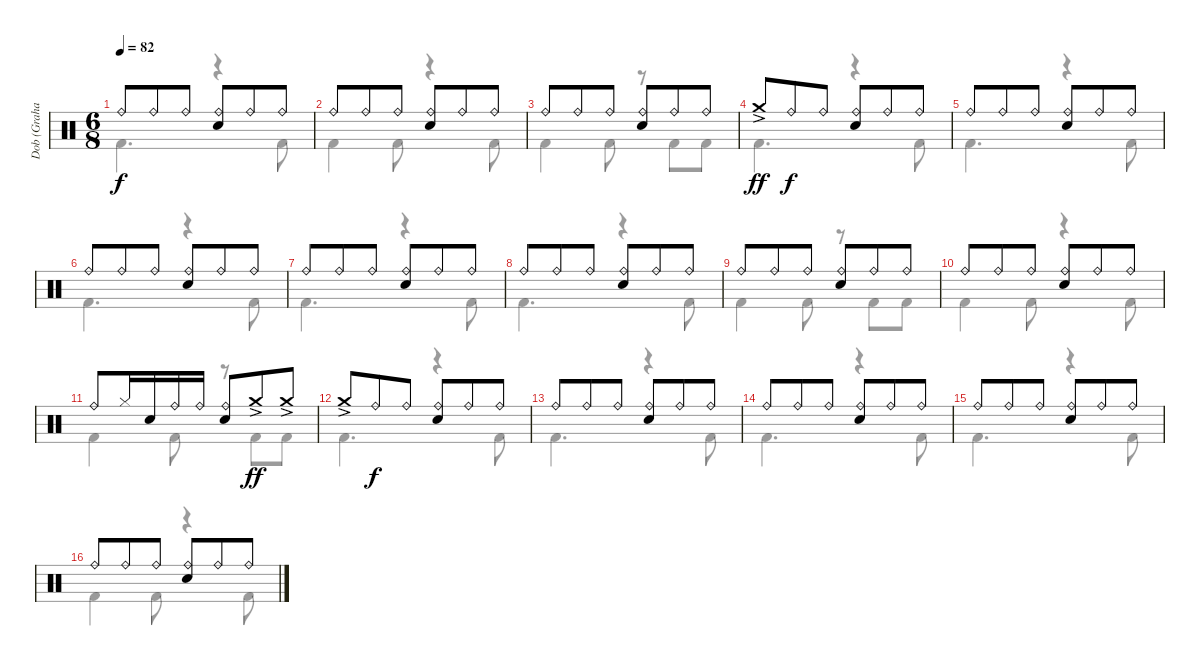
\track ("Dob (Graham Walker)" "Dob (Graha") {instrument percussion}
\staff {score}
\articulation defaults
\voice
\ts (6 8)
\tempo 82
\clef neutral
\ks c "Ride (bell)".8{dy f} "Ride (bell)".8 "Ride (bell)".8
("Ride (bell)" "Electric Snare (hit)").8 "Ride (bell)".8 "Ride (bell)".8 |
"Ride (bell)".8 "Ride (bell)".8 "Ride (bell)".8 ("Ride (bell)" "Electric Snare (hit)").8 "Ride (bell)".8 "Ride (bell)".8 |
"Ride (bell)".8 "Ride (bell)".8 "Ride (bell)".8 ("Ride (bell)" "Electric Snare (hit)").8 "Ride (bell)".8 "Ride (bell)".8 |
"Crash medium (hit)"{ac}.8{dy ff} "Ride (bell)".8{dy f} "Ride (bell)".8 ("Ride (bell)" "Electric Snare (hit)").8 "Ride (bell)".8 "Ride (bell)".8 |
"Ride (bell)".8 "Ride (bell)".8 "Ride (bell)".8 ("Ride (bell)" "Electric Snare (hit)").8 "Ride (bell)".8 "Ride (bell)".8 |
"Ride (bell)".8 "Ride (bell)".8 "Ride (bell)".8 ("Ride (bell)" "Electric Snare (hit)").8 "Ride (bell)".8 "Ride (bell)".8 |
"Ride (bell)".8 "Ride (bell)".8 "Ride (bell)".8 ("Ride (bell)" "Electric Snare (hit)").8 "Ride (bell)".8 "Ride (bell)".8 |
"Ride (bell)".8 "Ride (bell)".8 "Ride (bell)".8 ("Ride (bell)" "Electric Snare (hit)").8 "Ride (bell)".8 "Ride (bell)".8 |
"Ride (bell)".8 "Ride (bell)".8 "Ride (bell)".8 ("Ride (bell)" "Electric Snare (hit)").8 "Ride (bell)".8 "Ride (bell)".8 |
"Ride (bell)".8 "Ride (bell)".8 "Ride (bell)".8 ("Ride (bell)" "Electric Snare (hit)").8 "Ride (bell)".8 "Ride (bell)".8 |
"Ride (bell)".8 "Hi-Hat (closed)".16 "Electric Snare (hit)".16 "Ride (bell)".16 "Ride (bell)".16 ("Ride (bell)" "Electric Snare (hit)").8 "Crash medium (hit)"{ac}.8{dy ff} "Crash medium (hit)"{ac}.8 |
"Crash medium (hit)"{ac}.8 "Ride (bell)".8{dy f} "Ride (bell)".8 ("Ride (bell)" "Electric Snare (hit)").8 "Ride (bell)".8 "Ride (bell)".8 |
"Ride (bell)".8 "Ride (bell)".8 "Ride (bell)".8 ("Ride (bell)" "Electric Snare (hit)").8 "Ride (bell)".8 "Ride (bell)".8 |
"Ride (bell)".8 "Ride (bell)".8 "Ride (bell)".8 ("Ride (bell)" "Electric Snare (hit)").8 "Ride (bell)".8 "Ride (bell)".8 |
"Ride (bell)".8 "Ride (bell)".8 "Ride (bell)".8 ("Ride (bell)" "Electric Snare (hit)").8 "Ride (bell)".8 "Ride (bell)".8 |
"Ride (bell)".8 "Ride (bell)".8 "Ride (bell)".8 ("Ride (bell)" "Electric Snare (hit)").8 "Ride (bell)".8 "Ride (bell)".8
\voice
\clef neutral
\ottava regular
\simile none
\ks c "Kick (hit) 2".4{d dy f}
r.4 "Kick (hit) 2".8 |
"Kick (hit) 2".4 "Kick (hit) 2".8 r.4 "Kick (hit) 2".8 |
"Kick (hit) 2".4 "Kick (hit) 2".8 r.8 "Kick (hit) 2".8 "Kick (hit) 2".8 |
"Kick (hit) 2".4{d} r.4 "Kick (hit) 2".8 |
"Kick (hit) 2".4{d} r.4 "Kick (hit) 2".8 |
"Kick (hit) 2".4{d} r.4 "Kick (hit) 2".8 |
"Kick (hit) 2".4{d} r.4 "Kick (hit) 2".8 |
"Kick (hit) 2".4{d} r.4 "Kick (hit) 2".8 |
"Kick (hit) 2".4 "Kick (hit) 2".8 r.8 "Kick (hit) 2".8 "Kick (hit) 2".8 |
"Kick (hit) 2".4 "Kick (hit) 2".8 r.4 "Kick (hit) 2".8 |
"Kick (hit) 2".4 "Kick (hit) 2".8 r.8 "Kick (hit) 2".8 "Kick (hit) 2".8 |
"Kick (hit) 2".4{d} r.4 "Kick (hit) 2".8 |
"Kick (hit) 2".4{d} r.4 "Kick (hit) 2".8 |
"Kick (hit) 2".4{d} r.4 "Kick (hit) 2".8 |
"Kick (hit) 2".4{d} r.4 "Kick (hit) 2".8 |
"Kick (hit) 2".4 "Kick (hit) 2".8 r.4 "Kick (hit) 2".8
